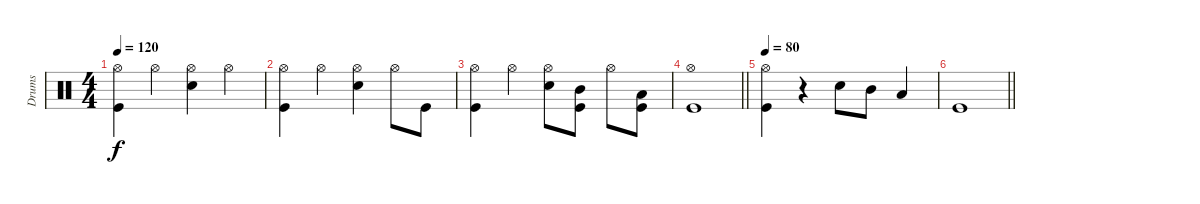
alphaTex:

\track ("Drums" "Drums") {instrument percussion}
\staff {score}
\articulation defaults
\ts (4 4)
\tempo 120
\clef neutral
\ks c
("Hi-Hat (open)" "Kick (hit)").4{dy f} "Hi-Hat (open)".4 ("Hi-Hat (open)" "Snare (hit) 2").4 "Hi-Hat (open)".4 |
("Hi-Hat (open)" "Kick (hit)").4 "Hi-Hat (open)".4 ("Hi-Hat (open)" "Snare (hit) 2").4 "Hi-Hat (open)".8 "Kick (hit)".8 |
("Hi-Hat (open)" "Kick (hit)").4 "Hi-Hat (open)".4 ("Hi-Hat (open)" "Snare (hit) 2").8 ("Mid Tom (hit)" "Kick (hit)").8 "Hi-Hat (open)".8 ("Low Tom (hit)" "Kick (hit)").8 |
\barLineRight lightlight
("Hi-Hat (open)" "Kick (hit)").1 |
\section ("" "")
\tempo 80
("Hi-Hat (open)" "Kick (hit)").4 r.4 "Snare (hit) 2".8 "Mid Tom (hit)".8 "Low Tom (hit)".4 |
\barLineRight lightlight "Kick (hit)".1{volume 5}
